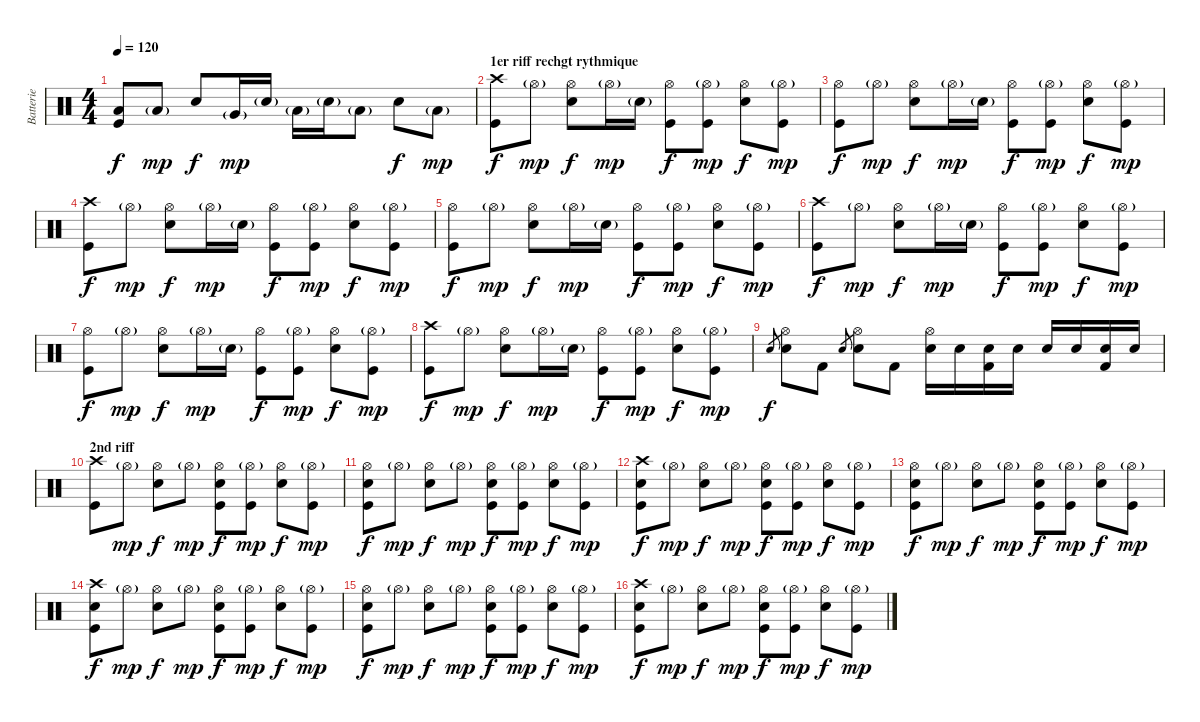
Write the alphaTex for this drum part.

\track ("Batterie" "Batterie") {instrument percussion}
\staff {score}
\articulation defaults
\ts (4 4)
\tempo 120
\clef neutral
\ks c
("Kick (hit)" "Low Floor Tom (hit)").8{dy f} "Low Floor Tom (hit)"{g}.8{dy mp} "Electric Snare (hit)".8{dy f} "Very Low Tom (hit)"{g}.16{dy mp} "Snare (hit) 2"{g}.16 "Low Floor Tom (hit)"{g}.16 "Snare (hit) 2"{g}.16 "Low Floor Tom (hit)"{g}.8 "Electric Snare (hit)".8{dy f} "Low Floor Tom (hit)"{g}.8{dy mp} |
\section ("" "1er riff rechgt rythmique")
("Crash high (hit)" "Kick (hit)").8{dy f} "Hi-Hat (open)"{g}.8{dy mp} ("Hi-Hat (open)" "Snare (hit) 2").8{dy f} "Hi-Hat (open)"{g}.16{dy mp} "Snare (hit) 2"{g}.16 ("Hi-Hat (open)" "Kick (hit)").8{dy f} ("Hi-Hat (open)"{g} "Kick (hit)").8{dy mp} ("Hi-Hat (open)" "Snare (hit) 2").8{dy f} ("Hi-Hat (open)"{g} "Kick (hit)").8{dy mp} |
("Hi-Hat (open)" "Kick (hit)").8{dy f} "Hi-Hat (open)"{g}.8{dy mp} ("Hi-Hat (open)" "Snare (hit) 2").8{dy f} "Hi-Hat (open)"{g}.16{dy mp} "Snare (hit) 2"{g}.16 ("Hi-Hat (open)" "Kick (hit)").8{dy f} ("Hi-Hat (open)"{g} "Kick (hit)").8{dy mp} ("Hi-Hat (open)" "Snare (hit) 2").8{dy f} ("Hi-Hat (open)"{g} "Kick (hit)").8{dy mp} |
("Crash high (hit)" "Kick (hit)").8{dy f} "Hi-Hat (open)"{g}.8{dy mp} ("Hi-Hat (open)" "Snare (hit) 2").8{dy f} "Hi-Hat (open)"{g}.16{dy mp} "Snare (hit) 2"{g}.16 ("Hi-Hat (open)" "Kick (hit)").8{dy f} ("Hi-Hat (open)"{g} "Kick (hit)").8{dy mp} ("Hi-Hat (open)" "Snare (hit) 2").8{dy f} ("Hi-Hat (open)"{g} "Kick (hit)").8{dy mp} |
("Hi-Hat (open)" "Kick (hit)").8{dy f} "Hi-Hat (open)"{g}.8{dy mp} ("Hi-Hat (open)" "Snare (hit) 2").8{dy f} "Hi-Hat (open)"{g}.16{dy mp} "Snare (hit) 2"{g}.16 ("Hi-Hat (open)" "Kick (hit)").8{dy f} ("Hi-Hat (open)"{g} "Kick (hit)").8{dy mp} ("Hi-Hat (open)" "Snare (hit) 2").8{dy f} ("Hi-Hat (open)"{g} "Kick (hit)").8{dy mp} |
("Crash high (hit)" "Kick (hit)").8{dy f} "Hi-Hat (open)"{g}.8{dy mp} ("Hi-Hat (open)" "Snare (hit) 2").8{dy f} "Hi-Hat (open)"{g}.16{dy mp} "Snare (hit) 2"{g}.16 ("Hi-Hat (open)" "Kick (hit)").8{dy f} ("Hi-Hat (open)"{g} "Kick (hit)").8{dy mp} ("Hi-Hat (open)" "Snare (hit) 2").8{dy f} ("Hi-Hat (open)"{g} "Kick (hit)").8{dy mp} |
("Hi-Hat (open)" "Kick (hit)").8{dy f} "Hi-Hat (open)"{g}.8{dy mp} ("Hi-Hat (open)" "Snare (hit) 2").8{dy f} "Hi-Hat (open)"{g}.16{dy mp} "Snare (hit) 2"{g}.16 ("Hi-Hat (open)" "Kick (hit)").8{dy f} ("Hi-Hat (open)"{g} "Kick (hit)").8{dy mp} ("Hi-Hat (open)" "Snare (hit) 2").8{dy f} ("Hi-Hat (open)"{g} "Kick (hit)").8{dy mp} |
("Crash high (hit)" "Kick (hit)").8{dy f} "Hi-Hat (open)"{g}.8{dy mp} ("Hi-Hat (open)" "Snare (hit) 2").8{dy f} "Hi-Hat (open)"{g}.16{dy mp} "Snare (hit) 2"{g}.16 ("Hi-Hat (open)" "Kick (hit)").8{dy f} ("Hi-Hat (open)"{g} "Kick (hit)").8{dy mp} ("Hi-Hat (open)" "Snare (hit) 2").8{dy f} ("Hi-Hat (open)"{g} "Kick (hit)").8{dy mp} |
"Electric Snare (hit)".8{gr dy f} ("Hi-Hat (open)" "Electric Snare (hit)").8 "Kick (hit) 2".8 "Electric Snare (hit)".8{gr} ("Hi-Hat (open)" "Electric Snare (hit)").8 "Kick (hit) 2".8 ("Hi-Hat (open)" "Electric Snare (hit)").16 "Electric Snare (hit)".16 ("Electric Snare (hit)" "Kick (hit) 2").16 "Electric Snare (hit)".16 "Electric Snare (hit)".16 "Electric Snare (hit)".16 ("Electric Snare (hit)" "Kick (hit) 2").16 "Electric Snare (hit)".16 |
\section ("" "2nd riff")
("Crash high (hit)" "Kick (hit)").8 "Hi-Hat (open)"{g}.8{dy mp} ("Hi-Hat (open)" "Electric Snare (hit)").8{dy f} "Hi-Hat (open)"{g}.8{dy mp} ("Hi-Hat (open)" "Kick (hit)" "Electric Snare (hit)").8{dy f} ("Hi-Hat (open)"{g} "Kick (hit)").8{dy mp} ("Hi-Hat (open)" "Electric Snare (hit)").8{dy f} ("Hi-Hat (open)"{g} "Kick (hit)").8{dy mp} |
("Hi-Hat (open)" "Kick (hit)" "Electric Snare (hit)").8{dy f} "Hi-Hat (open)"{g}.8{dy mp} ("Hi-Hat (open)" "Electric Snare (hit)").8{dy f} "Hi-Hat (open)"{g}.8{dy mp} ("Hi-Hat (open)" "Kick (hit)" "Electric Snare (hit)").8{dy f} ("Hi-Hat (open)"{g} "Kick (hit)").8{dy mp} ("Hi-Hat (open)" "Electric Snare (hit)").8{dy f} ("Hi-Hat (open)"{g} "Kick (hit)").8{dy mp} |
("Crash high (hit)" "Kick (hit)" "Electric Snare (hit)").8{dy f} "Hi-Hat (open)"{g}.8{dy mp} ("Hi-Hat (open)" "Electric Snare (hit)").8{dy f} "Hi-Hat (open)"{g}.8{dy mp} ("Hi-Hat (open)" "Kick (hit)" "Electric Snare (hit)").8{dy f} ("Hi-Hat (open)"{g} "Kick (hit)").8{dy mp} ("Hi-Hat (open)" "Electric Snare (hit)").8{dy f} ("Hi-Hat (open)"{g} "Kick (hit)").8{dy mp} |
("Hi-Hat (open)" "Kick (hit)" "Electric Snare (hit)").8{dy f} "Hi-Hat (open)"{g}.8{dy mp} ("Hi-Hat (open)" "Electric Snare (hit)").8{dy f} "Hi-Hat (open)"{g}.8{dy mp} ("Hi-Hat (open)" "Kick (hit)" "Electric Snare (hit)").8{dy f} ("Hi-Hat (open)"{g} "Kick (hit)").8{dy mp} ("Hi-Hat (open)" "Electric Snare (hit)").8{dy f} ("Hi-Hat (open)"{g} "Kick (hit)").8{dy mp} |
("Crash high (hit)" "Kick (hit)" "Electric Snare (hit)").8{dy f} "Hi-Hat (open)"{g}.8{dy mp} ("Hi-Hat (open)" "Electric Snare (hit)").8{dy f} "Hi-Hat (open)"{g}.8{dy mp} ("Hi-Hat (open)" "Kick (hit)" "Electric Snare (hit)").8{dy f} ("Hi-Hat (open)"{g} "Kick (hit)").8{dy mp} ("Hi-Hat (open)" "Electric Snare (hit)").8{dy f} ("Hi-Hat (open)"{g} "Kick (hit)").8{dy mp} |
("Hi-Hat (open)" "Kick (hit)" "Electric Snare (hit)").8{dy f} "Hi-Hat (open)"{g}.8{dy mp} ("Hi-Hat (open)" "Electric Snare (hit)").8{dy f} "Hi-Hat (open)"{g}.8{dy mp} ("Hi-Hat (open)" "Kick (hit)" "Electric Snare (hit)").8{dy f} ("Hi-Hat (open)"{g} "Kick (hit)").8{dy mp} ("Hi-Hat (open)" "Electric Snare (hit)").8{dy f} ("Hi-Hat (open)"{g} "Kick (hit)").8{dy mp} |
("Crash high (hit)" "Kick (hit)" "Electric Snare (hit)").8{dy f} "Hi-Hat (open)"{g}.8{dy mp} ("Hi-Hat (open)" "Electric Snare (hit)").8{dy f} "Hi-Hat (open)"{g}.8{dy mp} ("Hi-Hat (open)" "Kick (hit)" "Electric Snare (hit)").8{dy f} ("Hi-Hat (open)"{g} "Kick (hit)").8{dy mp} ("Hi-Hat (open)" "Electric Snare (hit)").8{dy f} ("Hi-Hat (open)"{g} "Kick (hit)").8{dy mp}
